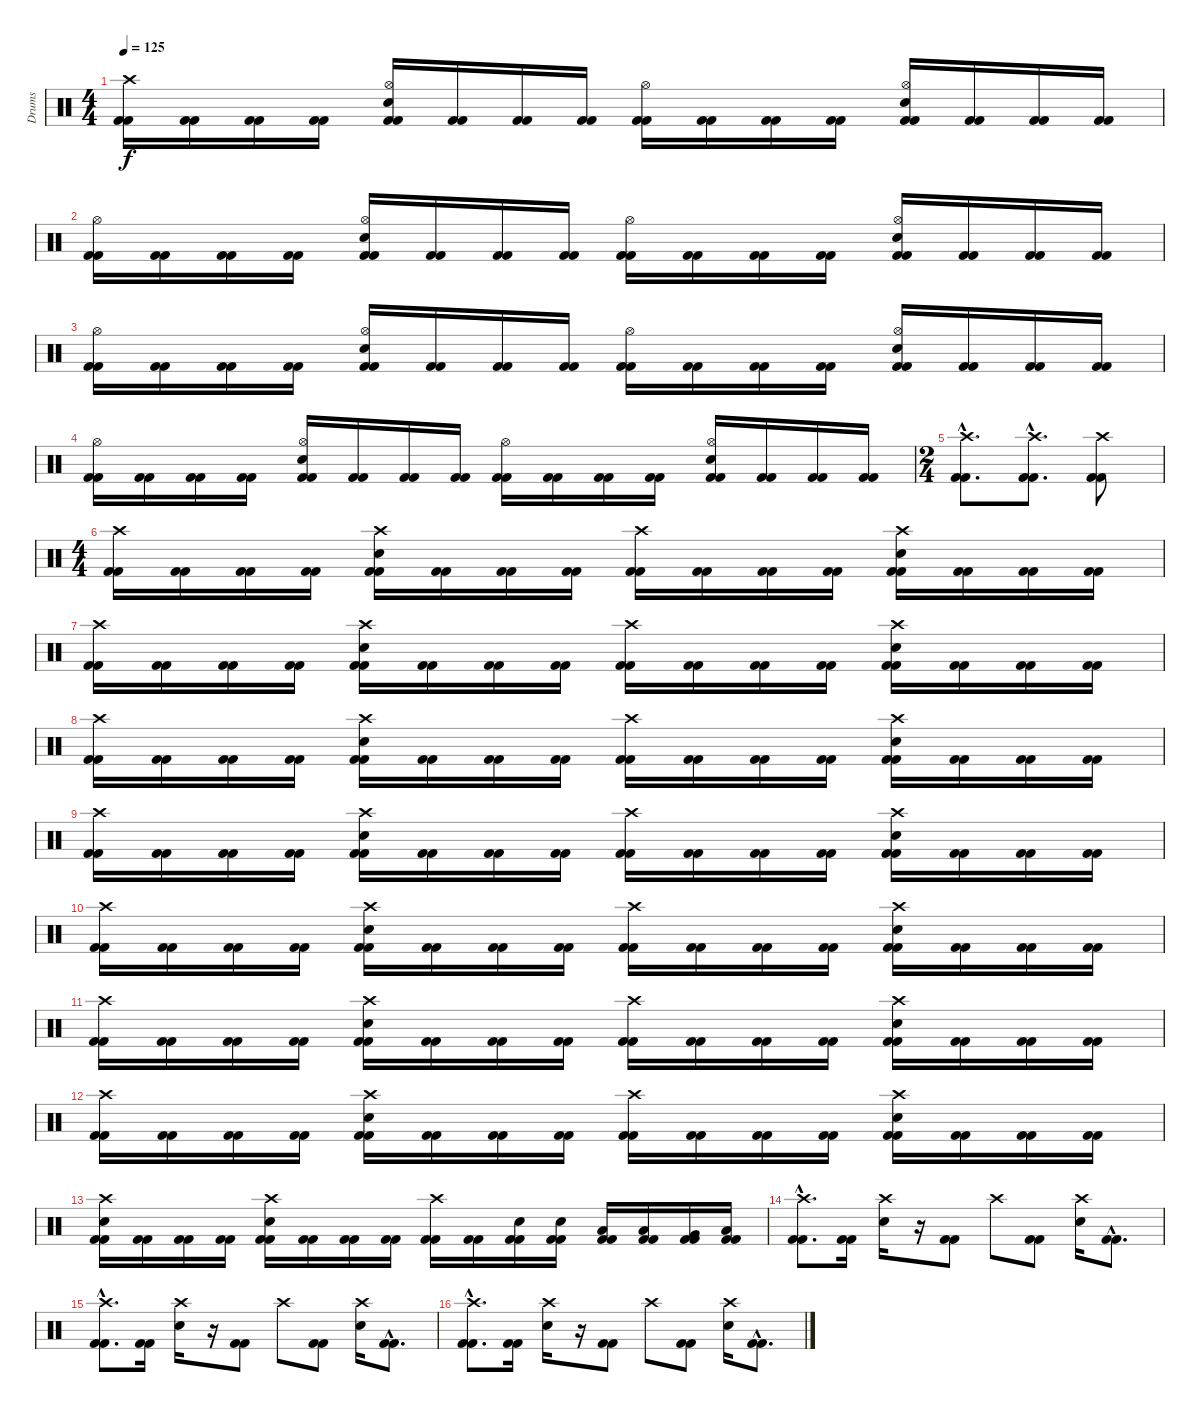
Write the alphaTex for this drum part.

\track ("Drums" "Drums") {instrument percussion}
\staff {score}
\articulation defaults
\ts (4 4)
\tempo 125
\clef neutral
\ks c
("Crash high (hit)" "Kick (hit) 2" "Kick (hit) 2").16{dy f} ("Kick (hit) 2" "Kick (hit) 2").16 ("Kick (hit) 2" "Kick (hit) 2").16 ("Kick (hit) 2" "Kick (hit) 2").16 ("Hi-Hat (open)" "Snare (hit) 2" "Kick (hit) 2" "Kick (hit) 2").16 ("Kick (hit) 2" "Kick (hit) 2").16 ("Kick (hit) 2" "Kick (hit) 2").16 ("Kick (hit) 2" "Kick (hit) 2").16 ("Hi-Hat (open)" "Kick (hit) 2" "Kick (hit) 2").16 ("Kick (hit) 2" "Kick (hit) 2").16 ("Kick (hit) 2" "Kick (hit) 2").16 ("Kick (hit) 2" "Kick (hit) 2").16 ("Hi-Hat (open)" "Snare (hit) 2" "Kick (hit) 2" "Kick (hit) 2").16 ("Kick (hit) 2" "Kick (hit) 2").16 ("Kick (hit) 2" "Kick (hit) 2").16 ("Kick (hit) 2" "Kick (hit) 2").16 |
("Hi-Hat (open)" "Kick (hit) 2" "Kick (hit) 2").16 ("Kick (hit) 2" "Kick (hit) 2").16 ("Kick (hit) 2" "Kick (hit) 2").16 ("Kick (hit) 2" "Kick (hit) 2").16 ("Hi-Hat (open)" "Snare (hit) 2" "Kick (hit) 2" "Kick (hit) 2").16 ("Kick (hit) 2" "Kick (hit) 2").16 ("Kick (hit) 2" "Kick (hit) 2").16 ("Kick (hit) 2" "Kick (hit) 2").16 ("Hi-Hat (open)" "Kick (hit) 2" "Kick (hit) 2").16 ("Kick (hit) 2" "Kick (hit) 2").16 ("Kick (hit) 2" "Kick (hit) 2").16 ("Kick (hit) 2" "Kick (hit) 2").16 ("Hi-Hat (open)" "Snare (hit) 2" "Kick (hit) 2" "Kick (hit) 2").16 ("Kick (hit) 2" "Kick (hit) 2").16 ("Kick (hit) 2" "Kick (hit) 2").16 ("Kick (hit) 2" "Kick (hit) 2").16 |
("Hi-Hat (open)" "Kick (hit) 2" "Kick (hit) 2").16 ("Kick (hit) 2" "Kick (hit) 2").16 ("Kick (hit) 2" "Kick (hit) 2").16 ("Kick (hit) 2" "Kick (hit) 2").16 ("Hi-Hat (open)" "Snare (hit) 2" "Kick (hit) 2" "Kick (hit) 2").16 ("Kick (hit) 2" "Kick (hit) 2").16 ("Kick (hit) 2" "Kick (hit) 2").16 ("Kick (hit) 2" "Kick (hit) 2").16 ("Hi-Hat (open)" "Kick (hit) 2" "Kick (hit) 2").16 ("Kick (hit) 2" "Kick (hit) 2").16 ("Kick (hit) 2" "Kick (hit) 2").16 ("Kick (hit) 2" "Kick (hit) 2").16 ("Hi-Hat (open)" "Snare (hit) 2" "Kick (hit) 2" "Kick (hit) 2").16 ("Kick (hit) 2" "Kick (hit) 2").16 ("Kick (hit) 2" "Kick (hit) 2").16 ("Kick (hit) 2" "Kick (hit) 2").16 |
("Hi-Hat (open)" "Kick (hit) 2" "Kick (hit) 2").16 ("Kick (hit) 2" "Kick (hit) 2").16 ("Kick (hit) 2" "Kick (hit) 2").16 ("Kick (hit) 2" "Kick (hit) 2").16 ("Hi-Hat (open)" "Snare (hit) 2" "Kick (hit) 2" "Kick (hit) 2").16 ("Kick (hit) 2" "Kick (hit) 2").16 ("Kick (hit) 2" "Kick (hit) 2").16 ("Kick (hit) 2" "Kick (hit) 2").16 ("Hi-Hat (open)" "Kick (hit) 2" "Kick (hit) 2").16 ("Kick (hit) 2" "Kick (hit) 2").16 ("Kick (hit) 2" "Kick (hit) 2").16 ("Kick (hit) 2" "Kick (hit) 2").16 ("Hi-Hat (open)" "Snare (hit) 2" "Kick (hit) 2" "Kick (hit) 2").16 ("Kick (hit) 2" "Kick (hit) 2").16 ("Kick (hit) 2" "Kick (hit) 2").16 ("Kick (hit) 2" "Kick (hit) 2").16 |
\ts (2 4)
("Crash high (hit)"{hac} "Kick (hit) 2"{hac} "Kick (hit) 2"{hac}).8{d} ("Crash high (hit)"{hac} "Kick (hit) 2"{hac} "Kick (hit) 2"{hac}).8{d} ("Crash high (hit)" "Kick (hit) 2" "Kick (hit) 2").8 |
\ts (4 4)
("Crash high (hit)" "Kick (hit) 2" "Kick (hit) 2").16 ("Kick (hit) 2" "Kick (hit) 2").16 ("Kick (hit) 2" "Kick (hit) 2").16 ("Kick (hit) 2" "Kick (hit) 2").16 ("Crash high (hit)" "Snare (hit) 2" "Kick (hit) 2" "Kick (hit) 2").16 ("Kick (hit) 2" "Kick (hit) 2").16 ("Kick (hit) 2" "Kick (hit) 2").16 ("Kick (hit) 2" "Kick (hit) 2").16 ("Crash high (hit)" "Kick (hit) 2" "Kick (hit) 2").16 ("Kick (hit) 2" "Kick (hit) 2").16 ("Kick (hit) 2" "Kick (hit) 2").16 ("Kick (hit) 2" "Kick (hit) 2").16 ("Crash high (hit)" "Snare (hit) 2" "Kick (hit) 2" "Kick (hit) 2").16 ("Kick (hit) 2" "Kick (hit) 2").16 ("Kick (hit) 2" "Kick (hit) 2").16 ("Kick (hit) 2" "Kick (hit) 2").16 |
("Crash high (hit)" "Kick (hit) 2" "Kick (hit) 2").16 ("Kick (hit) 2" "Kick (hit) 2").16 ("Kick (hit) 2" "Kick (hit) 2").16 ("Kick (hit) 2" "Kick (hit) 2").16 ("Crash high (hit)" "Snare (hit) 2" "Kick (hit) 2" "Kick (hit) 2").16 ("Kick (hit) 2" "Kick (hit) 2").16 ("Kick (hit) 2" "Kick (hit) 2").16 ("Kick (hit) 2" "Kick (hit) 2").16 ("Crash high (hit)" "Kick (hit) 2" "Kick (hit) 2").16 ("Kick (hit) 2" "Kick (hit) 2").16 ("Kick (hit) 2" "Kick (hit) 2").16 ("Kick (hit) 2" "Kick (hit) 2").16 ("Crash high (hit)" "Snare (hit) 2" "Kick (hit) 2" "Kick (hit) 2").16 ("Kick (hit) 2" "Kick (hit) 2").16 ("Kick (hit) 2" "Kick (hit) 2").16 ("Kick (hit) 2" "Kick (hit) 2").16 |
("Crash high (hit)" "Kick (hit) 2" "Kick (hit) 2").16 ("Kick (hit) 2" "Kick (hit) 2").16 ("Kick (hit) 2" "Kick (hit) 2").16 ("Kick (hit) 2" "Kick (hit) 2").16 ("Crash high (hit)" "Snare (hit) 2" "Kick (hit) 2" "Kick (hit) 2").16 ("Kick (hit) 2" "Kick (hit) 2").16 ("Kick (hit) 2" "Kick (hit) 2").16 ("Kick (hit) 2" "Kick (hit) 2").16 ("Crash high (hit)" "Kick (hit) 2" "Kick (hit) 2").16 ("Kick (hit) 2" "Kick (hit) 2").16 ("Kick (hit) 2" "Kick (hit) 2").16 ("Kick (hit) 2" "Kick (hit) 2").16 ("Crash high (hit)" "Snare (hit) 2" "Kick (hit) 2" "Kick (hit) 2").16 ("Kick (hit) 2" "Kick (hit) 2").16 ("Kick (hit) 2" "Kick (hit) 2").16 ("Kick (hit) 2" "Kick (hit) 2").16 |
("Crash high (hit)" "Kick (hit) 2" "Kick (hit) 2").16 ("Kick (hit) 2" "Kick (hit) 2").16 ("Kick (hit) 2" "Kick (hit) 2").16 ("Kick (hit) 2" "Kick (hit) 2").16 ("Crash high (hit)" "Snare (hit) 2" "Kick (hit) 2" "Kick (hit) 2").16 ("Kick (hit) 2" "Kick (hit) 2").16 ("Kick (hit) 2" "Kick (hit) 2").16 ("Kick (hit) 2" "Kick (hit) 2").16 ("Crash high (hit)" "Kick (hit) 2" "Kick (hit) 2").16 ("Kick (hit) 2" "Kick (hit) 2").16 ("Kick (hit) 2" "Kick (hit) 2").16 ("Kick (hit) 2" "Kick (hit) 2").16 ("Crash high (hit)" "Snare (hit) 2" "Kick (hit) 2" "Kick (hit) 2").16 ("Kick (hit) 2" "Kick (hit) 2").16 ("Kick (hit) 2" "Kick (hit) 2").16 ("Kick (hit) 2" "Kick (hit) 2").16 |
("Crash high (hit)" "Kick (hit) 2" "Kick (hit) 2").16 ("Kick (hit) 2" "Kick (hit) 2").16 ("Kick (hit) 2" "Kick (hit) 2").16 ("Kick (hit) 2" "Kick (hit) 2").16 ("Crash high (hit)" "Snare (hit) 2" "Kick (hit) 2" "Kick (hit) 2").16 ("Kick (hit) 2" "Kick (hit) 2").16 ("Kick (hit) 2" "Kick (hit) 2").16 ("Kick (hit) 2" "Kick (hit) 2").16 ("Crash high (hit)" "Kick (hit) 2" "Kick (hit) 2").16 ("Kick (hit) 2" "Kick (hit) 2").16 ("Kick (hit) 2" "Kick (hit) 2").16 ("Kick (hit) 2" "Kick (hit) 2").16 ("Crash high (hit)" "Snare (hit) 2" "Kick (hit) 2" "Kick (hit) 2").16 ("Kick (hit) 2" "Kick (hit) 2").16 ("Kick (hit) 2" "Kick (hit) 2").16 ("Kick (hit) 2" "Kick (hit) 2").16 |
("Crash high (hit)" "Kick (hit) 2" "Kick (hit) 2").16 ("Kick (hit) 2" "Kick (hit) 2").16 ("Kick (hit) 2" "Kick (hit) 2").16 ("Kick (hit) 2" "Kick (hit) 2").16 ("Crash high (hit)" "Snare (hit) 2" "Kick (hit) 2" "Kick (hit) 2").16 ("Kick (hit) 2" "Kick (hit) 2").16 ("Kick (hit) 2" "Kick (hit) 2").16 ("Kick (hit) 2" "Kick (hit) 2").16 ("Crash high (hit)" "Kick (hit) 2" "Kick (hit) 2").16 ("Kick (hit) 2" "Kick (hit) 2").16 ("Kick (hit) 2" "Kick (hit) 2").16 ("Kick (hit) 2" "Kick (hit) 2").16 ("Crash high (hit)" "Snare (hit) 2" "Kick (hit) 2" "Kick (hit) 2").16 ("Kick (hit) 2" "Kick (hit) 2").16 ("Kick (hit) 2" "Kick (hit) 2").16 ("Kick (hit) 2" "Kick (hit) 2").16 |
("Crash high (hit)" "Kick (hit) 2" "Kick (hit) 2").16 ("Kick (hit) 2" "Kick (hit) 2").16 ("Kick (hit) 2" "Kick (hit) 2").16 ("Kick (hit) 2" "Kick (hit) 2").16 ("Crash high (hit)" "Snare (hit) 2" "Kick (hit) 2" "Kick (hit) 2").16 ("Kick (hit) 2" "Kick (hit) 2").16 ("Kick (hit) 2" "Kick (hit) 2").16 ("Kick (hit) 2" "Kick (hit) 2").16 ("Crash high (hit)" "Kick (hit) 2" "Kick (hit) 2").16 ("Kick (hit) 2" "Kick (hit) 2").16 ("Kick (hit) 2" "Kick (hit) 2").16 ("Kick (hit) 2" "Kick (hit) 2").16 ("Crash high (hit)" "Snare (hit) 2" "Kick (hit) 2" "Kick (hit) 2").16 ("Kick (hit) 2" "Kick (hit) 2").16 ("Kick (hit) 2" "Kick (hit) 2").16 ("Kick (hit) 2" "Kick (hit) 2").16 |
("Crash high (hit)" "Snare (hit) 2" "Kick (hit) 2" "Kick (hit) 2").16 ("Kick (hit) 2" "Kick (hit) 2").16 ("Kick (hit) 2" "Kick (hit) 2").16 ("Kick (hit) 2" "Kick (hit) 2").16 ("Crash high (hit)" "Snare (hit) 2" "Kick (hit) 2" "Kick (hit) 2").16 ("Kick (hit) 2" "Kick (hit) 2").16 ("Kick (hit) 2" "Kick (hit) 2").16 ("Kick (hit) 2" "Kick (hit) 2").16 ("Crash high (hit)" "Kick (hit) 2" "Kick (hit) 2").16 ("Kick (hit) 2" "Kick (hit) 2").16 ("Snare (hit) 2" "Kick (hit) 2" "Kick (hit) 2").16 ("Snare (hit) 2" "Kick (hit) 2" "Kick (hit) 2").16 ("Low Tom (hit)" "Kick (hit) 2" "Kick (hit) 2").16 ("Low Tom (hit)" "Kick (hit) 2" "Kick (hit) 2").16 ("Very Low Tom (hit)" "Kick (hit) 2" "Kick (hit) 2").16 ("Low Floor Tom (hit)" "Kick (hit) 2" "Kick (hit) 2").16 |
("Crash high (hit)"{hac} "Kick (hit) 2"{hac} "Kick (hit) 2"{hac}).8{d} ("Kick (hit) 2" "Kick (hit) 2").16 ("Crash high (hit)" "Snare (hit) 2").16 r.16 ("Kick (hit) 2" "Kick (hit) 2").8 "Crash high (hit)".8 ("Kick (hit) 2" "Kick (hit) 2").8 ("Crash high (hit)" "Snare (hit) 2").16 ("Kick (hit) 2"{hac} "Kick (hit) 2"{hac}).8{d} |
("Crash high (hit)"{hac} "Kick (hit) 2"{hac} "Kick (hit) 2"{hac}).8{d} ("Kick (hit) 2" "Kick (hit) 2").16 ("Crash high (hit)" "Snare (hit) 2").16 r.16 ("Kick (hit) 2" "Kick (hit) 2").8 "Crash high (hit)".8 ("Kick (hit) 2" "Kick (hit) 2").8 ("Crash high (hit)" "Snare (hit) 2").16 ("Kick (hit) 2"{hac} "Kick (hit) 2"{hac}).8{d} |
("Crash high (hit)"{hac} "Kick (hit) 2"{hac} "Kick (hit) 2"{hac}).8{d} ("Kick (hit) 2" "Kick (hit) 2").16 ("Crash high (hit)" "Snare (hit) 2").16 r.16 ("Kick (hit) 2" "Kick (hit) 2").8 "Crash high (hit)".8 ("Kick (hit) 2" "Kick (hit) 2").8 ("Crash high (hit)" "Snare (hit) 2").16 ("Kick (hit) 2"{hac} "Kick (hit) 2"{hac}).8{d}
